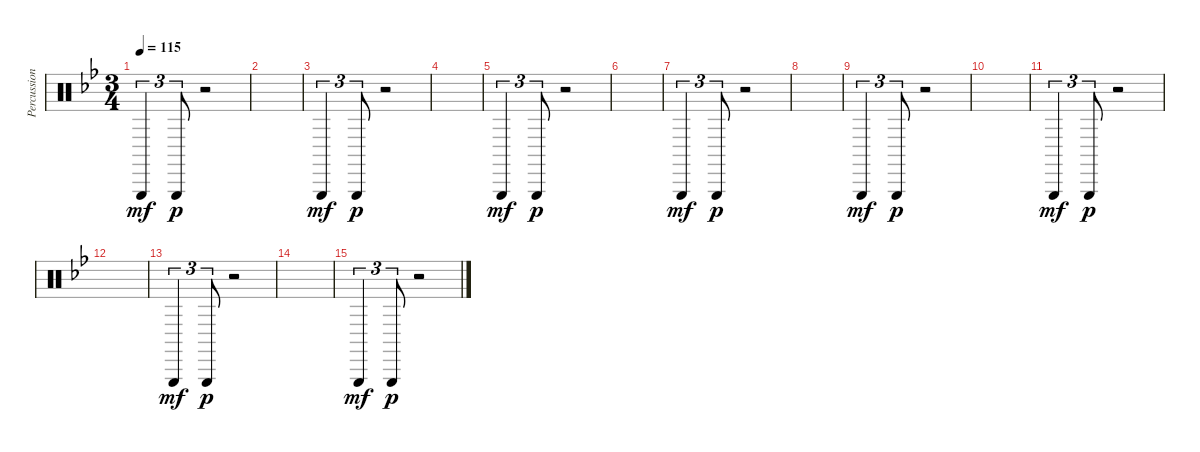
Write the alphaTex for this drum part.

\track ("Percussion" "Percussion") {instrument percussion}
\staff {score}
\articulation defaults
\ts (3 4)
\tempo 115
\clef neutral
\ks gminor "Triangle (hit)".4{tu (3 2) dy mf} "Triangle (hit)".8{tu (3 2) dy p}
r.2 |
|
"Triangle (hit)".4{tu (3 2) dy mf} "Triangle (hit)".8{tu (3 2) dy p} r.2 |
|
"Triangle (hit)".4{tu (3 2) dy mf} "Triangle (hit)".8{tu (3 2) dy p} r.2 |
|
"Triangle (hit)".4{tu (3 2) dy mf} "Triangle (hit)".8{tu (3 2) dy p} r.2 |
|
"Triangle (hit)".4{tu (3 2) dy mf} "Triangle (hit)".8{tu (3 2) dy p} r.2 |
|
"Triangle (hit)".4{tu (3 2) dy mf} "Triangle (hit)".8{tu (3 2) dy p} r.2 |
|
"Triangle (hit)".4{tu (3 2) dy mf} "Triangle (hit)".8{tu (3 2) dy p} r.2 |
|
"Triangle (hit)".4{tu (3 2) dy mf} "Triangle (hit)".8{tu (3 2) dy p} r.2
